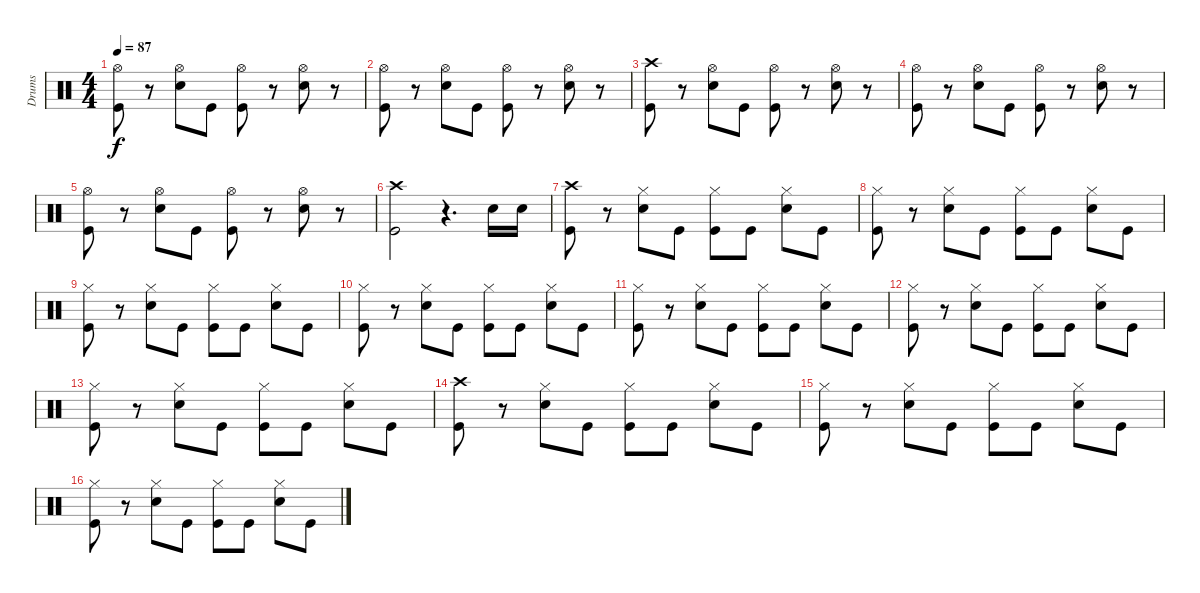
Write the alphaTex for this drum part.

\track ("Drums" "Drums") {instrument percussion}
\staff {score}
\articulation defaults
\ts (4 4)
\tempo 87
\clef neutral
\ks c
("Hi-Hat (open)" "Kick (hit)").8{dy f} r.8 ("Hi-Hat (open)" "Electric Snare (hit)").8 "Kick (hit)".8 ("Hi-Hat (open)" "Kick (hit)").8 r.8 ("Hi-Hat (open)" "Electric Snare (hit)").8 r.8 |
("Hi-Hat (open)" "Kick (hit)").8 r.8 ("Hi-Hat (open)" "Electric Snare (hit)").8 "Kick (hit)".8 ("Hi-Hat (open)" "Kick (hit)").8 r.8 ("Hi-Hat (open)" "Electric Snare (hit)").8 r.8 |
("Crash high (hit)" "Kick (hit)").8 r.8 ("Hi-Hat (open)" "Electric Snare (hit)").8 "Kick (hit)".8 ("Hi-Hat (open)" "Kick (hit)").8 r.8 ("Hi-Hat (open)" "Electric Snare (hit)").8 r.8 |
("Hi-Hat (open)" "Kick (hit)").8 r.8 ("Hi-Hat (open)" "Electric Snare (hit)").8 "Kick (hit)".8 ("Hi-Hat (open)" "Kick (hit)").8 r.8 ("Hi-Hat (open)" "Electric Snare (hit)").8 r.8 |
("Hi-Hat (open)" "Kick (hit)").8 r.8 ("Hi-Hat (open)" "Electric Snare (hit)").8 "Kick (hit)".8 ("Hi-Hat (open)" "Kick (hit)").8 r.8 ("Hi-Hat (open)" "Electric Snare (hit)").8 r.8 |
("Crash high (hit)" "Kick (hit)").2 r.4{d} "Electric Snare (hit)".16 "Electric Snare (hit)".16 |
("Crash high (hit)" "Kick (hit)").8 r.8 ("Hi-Hat (closed)" "Electric Snare (hit)").8 "Kick (hit)".8 ("Hi-Hat (closed)" "Kick (hit)").8 "Kick (hit)".8 ("Hi-Hat (closed)" "Electric Snare (hit)").8 "Kick (hit)".8 |
("Hi-Hat (closed)" "Kick (hit)").8 r.8 ("Hi-Hat (closed)" "Electric Snare (hit)").8 "Kick (hit)".8 ("Hi-Hat (closed)" "Kick (hit)").8 "Kick (hit)".8 ("Hi-Hat (closed)" "Electric Snare (hit)").8 "Kick (hit)".8 |
("Hi-Hat (closed)" "Kick (hit)").8 r.8 ("Hi-Hat (closed)" "Electric Snare (hit)").8 "Kick (hit)".8 ("Hi-Hat (closed)" "Kick (hit)").8 "Kick (hit)".8 ("Hi-Hat (closed)" "Electric Snare (hit)").8 "Kick (hit)".8 |
("Hi-Hat (closed)" "Kick (hit)").8 r.8 ("Hi-Hat (closed)" "Electric Snare (hit)").8 "Kick (hit)".8 ("Hi-Hat (closed)" "Kick (hit)").8 "Kick (hit)".8 ("Hi-Hat (closed)" "Electric Snare (hit)").8 "Kick (hit)".8 |
("Hi-Hat (closed)" "Kick (hit)").8 r.8 ("Hi-Hat (closed)" "Electric Snare (hit)").8 "Kick (hit)".8 ("Hi-Hat (closed)" "Kick (hit)").8 "Kick (hit)".8 ("Hi-Hat (closed)" "Electric Snare (hit)").8 "Kick (hit)".8 |
("Hi-Hat (closed)" "Kick (hit)").8 r.8 ("Hi-Hat (closed)" "Electric Snare (hit)").8 "Kick (hit)".8 ("Hi-Hat (closed)" "Kick (hit)").8 "Kick (hit)".8 ("Hi-Hat (closed)" "Electric Snare (hit)").8 "Kick (hit)".8 |
("Hi-Hat (closed)" "Kick (hit)").8 r.8 ("Hi-Hat (closed)" "Electric Snare (hit)").8 "Kick (hit)".8 ("Hi-Hat (closed)" "Kick (hit)").8 "Kick (hit)".8 ("Hi-Hat (closed)" "Electric Snare (hit)").8 "Kick (hit)".8 |
("Crash high (hit)" "Kick (hit)").8 r.8 ("Hi-Hat (closed)" "Electric Snare (hit)").8 "Kick (hit)".8 ("Hi-Hat (closed)" "Kick (hit)").8 "Kick (hit)".8 ("Hi-Hat (closed)" "Electric Snare (hit)").8 "Kick (hit)".8 |
("Hi-Hat (closed)" "Kick (hit)").8 r.8 ("Hi-Hat (closed)" "Electric Snare (hit)").8 "Kick (hit)".8 ("Hi-Hat (closed)" "Kick (hit)").8 "Kick (hit)".8 ("Hi-Hat (closed)" "Electric Snare (hit)").8 "Kick (hit)".8 |
("Hi-Hat (closed)" "Kick (hit)").8 r.8 ("Hi-Hat (closed)" "Electric Snare (hit)").8 "Kick (hit)".8 ("Hi-Hat (closed)" "Kick (hit)").8 "Kick (hit)".8 ("Hi-Hat (closed)" "Electric Snare (hit)").8 "Kick (hit)".8
